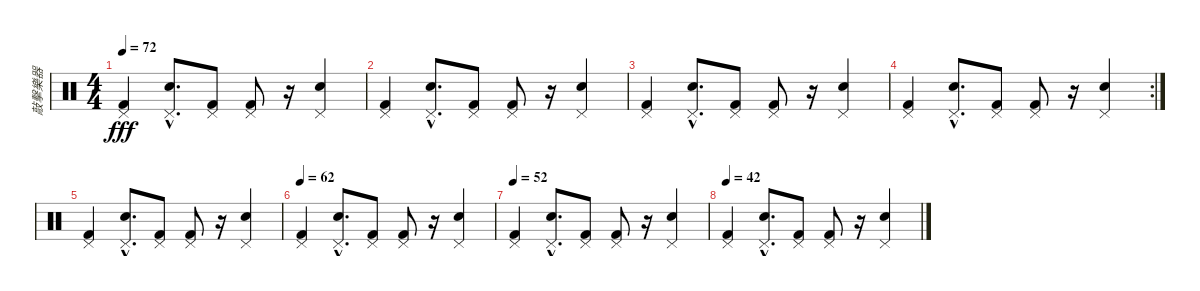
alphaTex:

\track ("敲擊樂器" "敲擊樂器") {instrument percussion}
\staff {score}
\articulation defaults
\ts (4 4)
\tempo 72
\clef neutral
\ks c
("Kick (hit) 2" "Pedal Hi-Hat (hit)").4{dy fff} ("Electric Snare (hit)"{hac} "Pedal Hi-Hat (hit)"{hac}).8{d} ("Kick (hit) 2" "Pedal Hi-Hat (hit)").8 ("Kick (hit) 2" "Pedal Hi-Hat (hit)").8 r.16 ("Electric Snare (hit)" "Pedal Hi-Hat (hit)").4 |
("Kick (hit) 2" "Pedal Hi-Hat (hit)").4 ("Electric Snare (hit)"{hac} "Pedal Hi-Hat (hit)"{hac}).8{d} ("Kick (hit) 2" "Pedal Hi-Hat (hit)").8 ("Kick (hit) 2" "Pedal Hi-Hat (hit)").8 r.16 ("Electric Snare (hit)" "Pedal Hi-Hat (hit)").4 |
("Kick (hit) 2" "Pedal Hi-Hat (hit)").4 ("Electric Snare (hit)"{hac} "Pedal Hi-Hat (hit)"{hac}).8{d} ("Kick (hit) 2" "Pedal Hi-Hat (hit)").8 ("Kick (hit) 2" "Pedal Hi-Hat (hit)").8 r.16 ("Electric Snare (hit)" "Pedal Hi-Hat (hit)").4 |
\rc 2
("Kick (hit) 2" "Pedal Hi-Hat (hit)").4 ("Electric Snare (hit)"{hac} "Pedal Hi-Hat (hit)"{hac}).8{d} ("Kick (hit) 2" "Pedal Hi-Hat (hit)").8 ("Kick (hit) 2" "Pedal Hi-Hat (hit)").8 r.16 ("Electric Snare (hit)" "Pedal Hi-Hat (hit)").4 |
("Kick (hit) 2" "Pedal Hi-Hat (hit)").4 ("Electric Snare (hit)"{hac} "Pedal Hi-Hat (hit)"{hac}).8{d} ("Kick (hit) 2" "Pedal Hi-Hat (hit)").8 ("Kick (hit) 2" "Pedal Hi-Hat (hit)").8 r.16 ("Electric Snare (hit)" "Pedal Hi-Hat (hit)").4 |
\tempo 62
("Kick (hit) 2" "Pedal Hi-Hat (hit)").4 ("Electric Snare (hit)"{hac} "Pedal Hi-Hat (hit)"{hac}).8{d} ("Kick (hit) 2" "Pedal Hi-Hat (hit)").8 ("Kick (hit) 2" "Pedal Hi-Hat (hit)").8 r.16 ("Electric Snare (hit)" "Pedal Hi-Hat (hit)").4 |
\tempo 52
("Kick (hit) 2" "Pedal Hi-Hat (hit)").4 ("Electric Snare (hit)"{hac} "Pedal Hi-Hat (hit)"{hac}).8{d} ("Kick (hit) 2" "Pedal Hi-Hat (hit)").8 ("Kick (hit) 2" "Pedal Hi-Hat (hit)").8 r.16 ("Electric Snare (hit)" "Pedal Hi-Hat (hit)").4 |
\tempo 42
("Kick (hit) 2" "Pedal Hi-Hat (hit)").4 ("Electric Snare (hit)"{hac} "Pedal Hi-Hat (hit)"{hac}).8{d} ("Kick (hit) 2" "Pedal Hi-Hat (hit)").8 ("Kick (hit) 2" "Pedal Hi-Hat (hit)").8 r.16 ("Electric Snare (hit)" "Pedal Hi-Hat (hit)").4
